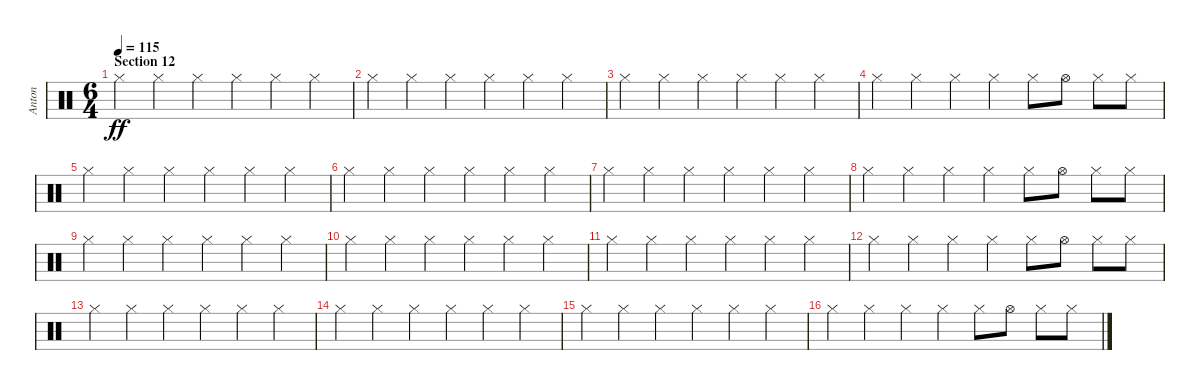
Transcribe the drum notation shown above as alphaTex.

\track ("Anton" "Anton") {instrument percussion}
\staff {score}
\articulation defaults
\ts (6 4)
\section ("" "Section 12")
\tempo 115
\clef neutral
\ks c "Hi-Hat (closed)".4{dy ff} "Hi-Hat (closed)".4 "Hi-Hat (closed)".4 "Hi-Hat (closed)".4 "Hi-Hat (closed)".4 "Hi-Hat (closed)".4
|
"Hi-Hat (closed)".4 "Hi-Hat (closed)".4 "Hi-Hat (closed)".4 "Hi-Hat (closed)".4 "Hi-Hat (closed)".4 "Hi-Hat (closed)".4 |
"Hi-Hat (closed)".4 "Hi-Hat (closed)".4 "Hi-Hat (closed)".4 "Hi-Hat (closed)".4 "Hi-Hat (closed)".4 "Hi-Hat (closed)".4 |
"Hi-Hat (closed)".4 "Hi-Hat (closed)".4 "Hi-Hat (closed)".4 "Hi-Hat (closed)".4 "Hi-Hat (closed)".8 "Hi-Hat (open)".8 "Hi-Hat (closed)".8 "Hi-Hat (closed)".8 |
"Hi-Hat (closed)".4 "Hi-Hat (closed)".4 "Hi-Hat (closed)".4 "Hi-Hat (closed)".4 "Hi-Hat (closed)".4 "Hi-Hat (closed)".4 |
"Hi-Hat (closed)".4 "Hi-Hat (closed)".4 "Hi-Hat (closed)".4 "Hi-Hat (closed)".4 "Hi-Hat (closed)".4 "Hi-Hat (closed)".4 |
"Hi-Hat (closed)".4 "Hi-Hat (closed)".4 "Hi-Hat (closed)".4 "Hi-Hat (closed)".4 "Hi-Hat (closed)".4 "Hi-Hat (closed)".4 |
"Hi-Hat (closed)".4 "Hi-Hat (closed)".4 "Hi-Hat (closed)".4 "Hi-Hat (closed)".4 "Hi-Hat (closed)".8 "Hi-Hat (open)".8 "Hi-Hat (closed)".8 "Hi-Hat (closed)".8 |
"Hi-Hat (closed)".4 "Hi-Hat (closed)".4 "Hi-Hat (closed)".4 "Hi-Hat (closed)".4 "Hi-Hat (closed)".4 "Hi-Hat (closed)".4 |
"Hi-Hat (closed)".4 "Hi-Hat (closed)".4 "Hi-Hat (closed)".4 "Hi-Hat (closed)".4 "Hi-Hat (closed)".4 "Hi-Hat (closed)".4 |
"Hi-Hat (closed)".4 "Hi-Hat (closed)".4 "Hi-Hat (closed)".4 "Hi-Hat (closed)".4 "Hi-Hat (closed)".4 "Hi-Hat (closed)".4 |
"Hi-Hat (closed)".4 "Hi-Hat (closed)".4 "Hi-Hat (closed)".4 "Hi-Hat (closed)".4 "Hi-Hat (closed)".8 "Hi-Hat (open)".8 "Hi-Hat (closed)".8 "Hi-Hat (closed)".8 |
"Hi-Hat (closed)".4 "Hi-Hat (closed)".4 "Hi-Hat (closed)".4 "Hi-Hat (closed)".4 "Hi-Hat (closed)".4 "Hi-Hat (closed)".4 |
"Hi-Hat (closed)".4 "Hi-Hat (closed)".4 "Hi-Hat (closed)".4 "Hi-Hat (closed)".4 "Hi-Hat (closed)".4 "Hi-Hat (closed)".4 |
"Hi-Hat (closed)".4 "Hi-Hat (closed)".4 "Hi-Hat (closed)".4 "Hi-Hat (closed)".4 "Hi-Hat (closed)".4 "Hi-Hat (closed)".4 |
"Hi-Hat (closed)".4 "Hi-Hat (closed)".4 "Hi-Hat (closed)".4 "Hi-Hat (closed)".4 "Hi-Hat (closed)".8 "Hi-Hat (open)".8 "Hi-Hat (closed)".8 "Hi-Hat (closed)".8
